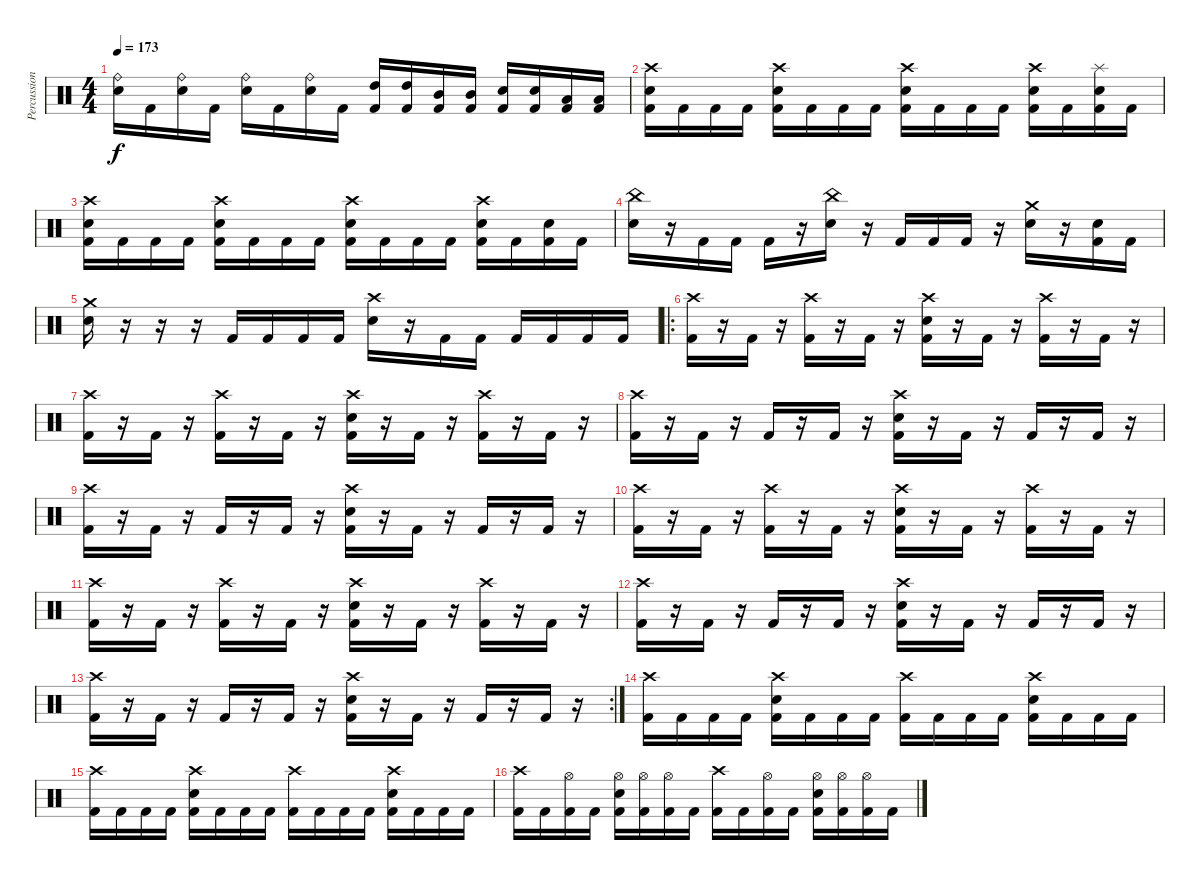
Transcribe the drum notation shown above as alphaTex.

\track ("Percussion" "Percussion") {instrument percussion}
\staff {score}
\articulation defaults
\ts (4 4)
\tempo 173
\clef neutral
\ks c
("Ride (bell)" "Electric Snare (hit)").16{dy f} "Kick (hit) 2".16 ("Ride (bell)" "Electric Snare (hit)").16 "Kick (hit) 2".16 ("Ride (bell)" "Electric Snare (hit)").16 "Kick (hit) 2".16 ("Ride (bell)" "Electric Snare (hit)").16 "Kick (hit) 2".16 ("High Tom (hit)" "Kick (hit) 2").16 ("High Tom (hit)" "Kick (hit) 2").16 ("Mid Tom (hit)" "Kick (hit) 2").16 ("Mid Tom (hit)" "Kick (hit) 2").16 ("Electric Snare (hit)" "Kick (hit) 2").16 ("Electric Snare (hit)" "Kick (hit) 2").16 ("Low Floor Tom (hit)" "Kick (hit) 2").16 ("Low Floor Tom (hit)" "Kick (hit) 2").16 |
("Crash high (hit)" "Electric Snare (hit)" "Kick (hit) 2").16 "Kick (hit) 2".16 "Kick (hit) 2".16 "Kick (hit) 2".16 ("Crash high (hit)" "Electric Snare (hit)" "Kick (hit) 2").16 "Kick (hit) 2".16 "Kick (hit) 2".16 "Kick (hit) 2".16 ("Crash high (hit)" "Electric Snare (hit)" "Kick (hit) 2").16 "Kick (hit) 2".16 "Kick (hit) 2".16 "Kick (hit) 2".16 ("Crash high (hit)" "Electric Snare (hit)" "Kick (hit) 2").16 "Kick (hit) 2".16 ("Splash (hit)" "Electric Snare (hit)" "Kick (hit) 2").16 "Kick (hit) 2".16 |
("Crash high (hit)" "Electric Snare (hit)" "Kick (hit) 2").16 "Kick (hit) 2".16 "Kick (hit) 2".16 "Kick (hit) 2".16 ("Crash high (hit)" "Electric Snare (hit)" "Kick (hit) 2").16 "Kick (hit) 2".16 "Kick (hit) 2".16 "Kick (hit) 2".16 ("Crash high (hit)" "Electric Snare (hit)" "Kick (hit) 2").16 "Kick (hit) 2".16 "Kick (hit) 2".16 "Kick (hit) 2".16 ("Crash high (hit)" "Electric Snare (hit)" "Kick (hit) 2").16 "Kick (hit) 2".16 ("Electric Snare (hit)" "Kick (hit) 2").16 "Kick (hit) 2".16 |
("China (hit)" "Electric Snare (hit)").16 r.16 "Kick (hit) 2".16 "Kick (hit) 2".16 "Kick (hit) 2".16 r.16 ("China (hit)" "Electric Snare (hit)").16 r.16 "Kick (hit) 2".16 "Kick (hit) 2".16 "Kick (hit) 2".16 r.16 ("Crash medium (hit)" "Electric Snare (hit)").16 r.16 ("Electric Snare (hit)" "Kick (hit) 2").16 "Kick (hit) 2".16 |
("Crash medium (hit)" "Electric Snare (hit)").16 r.16 r.16 r.16 "Kick (hit) 2".16 "Kick (hit) 2".16 "Kick (hit) 2".16 "Kick (hit) 2".16 ("Crash high (hit)" "Electric Snare (hit)").16 r.16 "Kick (hit) 2".16 "Kick (hit) 2".16 "Kick (hit) 2".16 "Kick (hit) 2".16 "Kick (hit) 2".16 "Kick (hit) 2".16 |
\ro
("Crash high (hit)" "Kick (hit) 2").16 r.16 "Kick (hit) 2".16 r.16 ("Crash high (hit)" "Kick (hit) 2").16 r.16 "Kick (hit) 2".16 r.16 ("Crash high (hit)" "Electric Snare (hit)" "Kick (hit) 2").16 r.16 "Kick (hit) 2".16 r.16 ("Crash high (hit)" "Kick (hit) 2").16 r.16 "Kick (hit) 2".16 r.16 |
("Crash high (hit)" "Kick (hit) 2").16 r.16 "Kick (hit) 2".16 r.16 ("Crash high (hit)" "Kick (hit) 2").16 r.16 "Kick (hit) 2".16 r.16 ("Crash high (hit)" "Electric Snare (hit)" "Kick (hit) 2").16 r.16 "Kick (hit) 2".16 r.16 ("Crash high (hit)" "Kick (hit) 2").16 r.16 "Kick (hit) 2".16 r.16 |
("Crash high (hit)" "Kick (hit) 2").16 r.16 "Kick (hit) 2".16 r.16 "Kick (hit) 2".16 r.16 "Kick (hit) 2".16 r.16 ("Crash high (hit)" "Electric Snare (hit)" "Kick (hit) 2").16 r.16 "Kick (hit) 2".16 r.16 "Kick (hit) 2".16 r.16 "Kick (hit) 2".16 r.16 |
("Crash high (hit)" "Kick (hit) 2").16 r.16 "Kick (hit) 2".16 r.16 "Kick (hit) 2".16 r.16 "Kick (hit) 2".16 r.16 ("Crash high (hit)" "Electric Snare (hit)" "Kick (hit) 2").16 r.16 "Kick (hit) 2".16 r.16 "Kick (hit) 2".16 r.16 "Kick (hit) 2".16 r.16 |
("Crash high (hit)" "Kick (hit) 2").16 r.16 "Kick (hit) 2".16 r.16 ("Crash high (hit)" "Kick (hit) 2").16 r.16 "Kick (hit) 2".16 r.16 ("Crash high (hit)" "Electric Snare (hit)" "Kick (hit) 2").16 r.16 "Kick (hit) 2".16 r.16 ("Crash high (hit)" "Kick (hit) 2").16 r.16 "Kick (hit) 2".16 r.16 |
("Crash high (hit)" "Kick (hit) 2").16 r.16 "Kick (hit) 2".16 r.16 ("Crash high (hit)" "Kick (hit) 2").16 r.16 "Kick (hit) 2".16 r.16 ("Crash high (hit)" "Electric Snare (hit)" "Kick (hit) 2").16 r.16 "Kick (hit) 2".16 r.16 ("Crash high (hit)" "Kick (hit) 2").16 r.16 "Kick (hit) 2".16 r.16 |
("Crash high (hit)" "Kick (hit) 2").16 r.16 "Kick (hit) 2".16 r.16 "Kick (hit) 2".16 r.16 "Kick (hit) 2".16 r.16 ("Crash high (hit)" "Electric Snare (hit)" "Kick (hit) 2").16 r.16 "Kick (hit) 2".16 r.16 "Kick (hit) 2".16 r.16 "Kick (hit) 2".16 r.16 |
\rc 2
("Crash high (hit)" "Kick (hit) 2").16 r.16 "Kick (hit) 2".16 r.16 "Kick (hit) 2".16 r.16 "Kick (hit) 2".16 r.16 ("Crash high (hit)" "Electric Snare (hit)" "Kick (hit) 2").16 r.16 "Kick (hit) 2".16 r.16 "Kick (hit) 2".16 r.16 "Kick (hit) 2".16 r.16 |
("Crash high (hit)" "Kick (hit) 2").16 "Kick (hit) 2".16 "Kick (hit) 2".16 "Kick (hit) 2".16 ("Crash high (hit)" "Electric Snare (hit)" "Kick (hit) 2").16 "Kick (hit) 2".16 "Kick (hit) 2".16 "Kick (hit) 2".16 ("Crash high (hit)" "Kick (hit) 2").16 "Kick (hit) 2".16 "Kick (hit) 2".16 "Kick (hit) 2".16 ("Crash high (hit)" "Electric Snare (hit)" "Kick (hit) 2").16 "Kick (hit) 2".16 "Kick (hit) 2".16 "Kick (hit) 2".16 |
("Crash high (hit)" "Kick (hit) 2").16 "Kick (hit) 2".16 "Kick (hit) 2".16 "Kick (hit) 2".16 ("Crash high (hit)" "Electric Snare (hit)" "Kick (hit) 2").16 "Kick (hit) 2".16 "Kick (hit) 2".16 "Kick (hit) 2".16 ("Crash high (hit)" "Kick (hit) 2").16 "Kick (hit) 2".16 "Kick (hit) 2".16 "Kick (hit) 2".16 ("Crash high (hit)" "Electric Snare (hit)" "Kick (hit) 2").16 "Kick (hit) 2".16 "Kick (hit) 2".16 "Kick (hit) 2".16 |
("Crash high (hit)" "Kick (hit) 2").16 "Kick (hit) 2".16 ("Hi-Hat (open)" "Kick (hit) 2").16 "Kick (hit) 2".16 ("Hi-Hat (open)" "Electric Snare (hit)" "Kick (hit) 2").16 ("Hi-Hat (open)" "Kick (hit) 2").16 ("Hi-Hat (open)" "Kick (hit) 2").16 "Kick (hit) 2".16 ("Crash high (hit)" "Kick (hit) 2").16 "Kick (hit) 2".16 ("Hi-Hat (open)" "Kick (hit) 2").16 "Kick (hit) 2".16 ("Hi-Hat (open)" "Electric Snare (hit)" "Kick (hit) 2").16 ("Hi-Hat (open)" "Kick (hit) 2").16 ("Hi-Hat (open)" "Kick (hit) 2").16 "Kick (hit) 2".16
